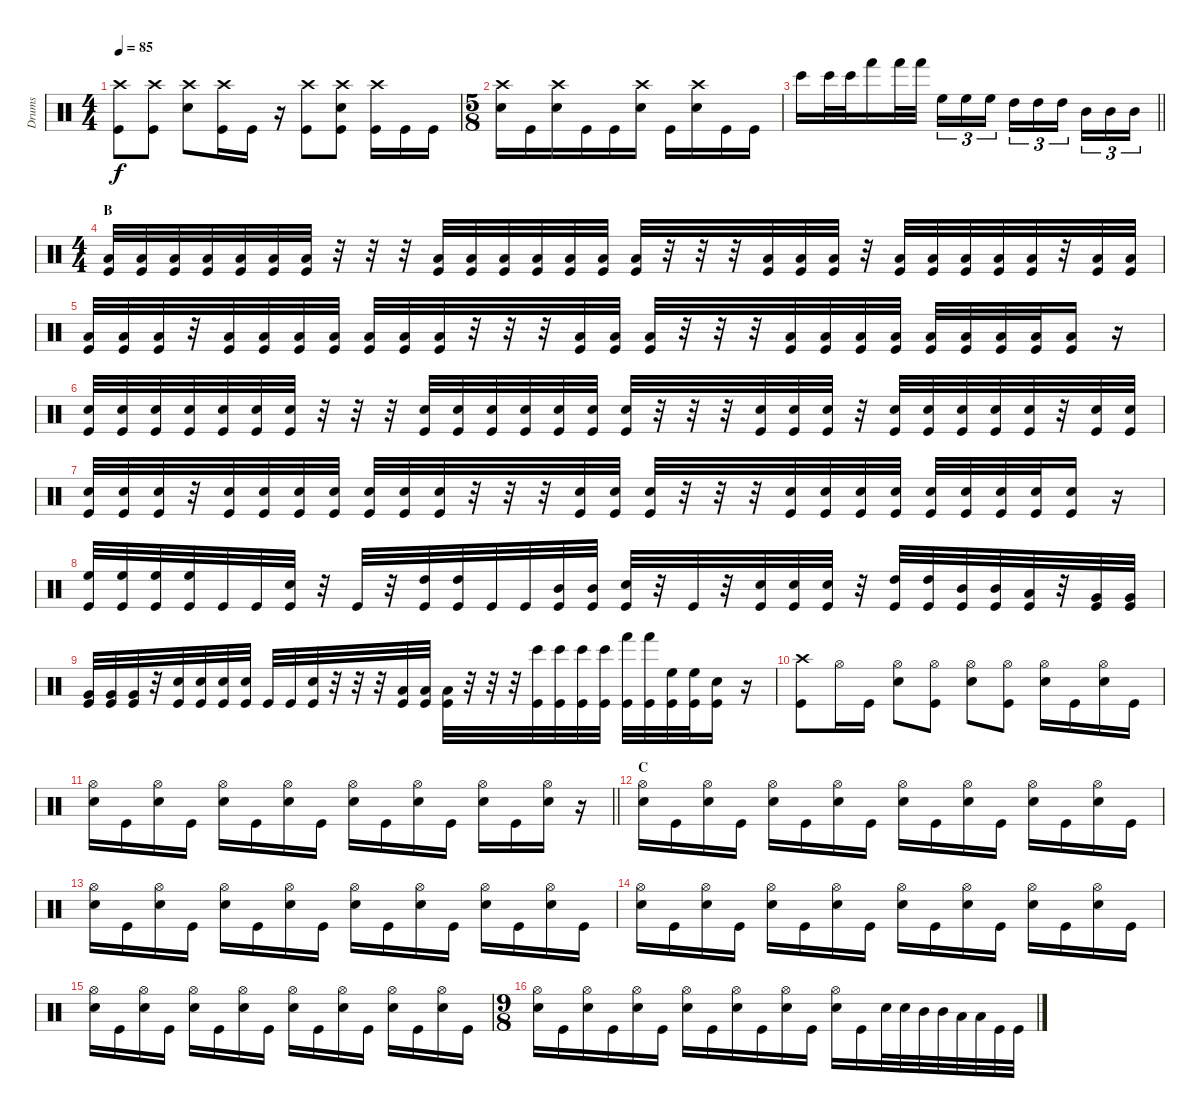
\track ("Drums" "Drums") {instrument percussion}
\staff {score}
\articulation defaults
\ts (4 4)
\tempo 85
\clef neutral
\ks c
("Crash high (hit)" "Kick (hit)").8{dy f} ("Crash high (hit)" "Kick (hit)").8 ("Crash high (hit)" "Snare (hit) 2").8 ("Crash high (hit)" "Kick (hit)").16 "Kick (hit)".16 r.16 ("Crash high (hit)" "Kick (hit)").8 ("Crash high (hit)" "Kick (hit)" "Snare (hit) 2").8 ("Crash high (hit)" "Kick (hit)").16 "Kick (hit)".16 "Kick (hit)".16 |
\ts (5 8)
("Crash high (hit)" "Snare (hit) 2").16 "Kick (hit)".16 ("Crash high (hit)" "Snare (hit) 2").16 "Kick (hit)".16 "Kick (hit)".16 ("Crash high (hit)" "Snare (hit) 2").16 "Kick (hit)".16 ("Crash high (hit)" "Snare (hit) 2").16 "Kick (hit)".16 "Kick (hit)".16 |
\barLineRight lightlight "Bongo High (hit)".16 "Bongo High (hit)".32 "Bongo High (hit)".32 "Hand (hit)".16 "Hand (hit)".32 "Hand (hit)".32 "High Floor Tom (hit)".16{tu (3 2)} "High Floor Tom (hit)".16{tu (3 2)} "High Floor Tom (hit)".16{tu (3 2)} "High Tom (hit)".16{tu (3 2)} "High Tom (hit)".16{tu (3 2)} "High Tom (hit)".16{tu (3 2)} "Mid Tom (hit)".16{tu (3 2)} "Mid Tom (hit)".16{tu (3 2)} "Mid Tom (hit)".16{tu (3 2)}
|
\ts (4 4)
\section ("" "B")
("Low Floor Tom (hit)" "Kick (hit)").32 ("Low Floor Tom (hit)" "Kick (hit)").32 ("Low Floor Tom (hit)" "Kick (hit)").32 ("Low Floor Tom (hit)" "Kick (hit)").32 ("Low Floor Tom (hit)" "Kick (hit)").32 ("Low Floor Tom (hit)" "Kick (hit)").32 ("Low Floor Tom (hit)" "Kick (hit)").32 r.32 r.32 r.32 ("Low Floor Tom (hit)" "Kick (hit)").32 ("Low Floor Tom (hit)" "Kick (hit)").32 ("Low Floor Tom (hit)" "Kick (hit)").32 ("Low Floor Tom (hit)" "Kick (hit)").32 ("Low Floor Tom (hit)" "Kick (hit)").32 ("Low Floor Tom (hit)" "Kick (hit)").32 ("Low Floor Tom (hit)" "Kick (hit)").32 r.32 r.32 r.32 ("Low Floor Tom (hit)" "Kick (hit)").32 ("Low Floor Tom (hit)" "Kick (hit)").32 ("Low Floor Tom (hit)" "Kick (hit)").32 r.32 ("Low Floor Tom (hit)" "Kick (hit)").32 ("Low Floor Tom (hit)" "Kick (hit)").32 ("Low Floor Tom (hit)" "Kick (hit)").32 ("Low Floor Tom (hit)" "Kick (hit)").32 ("Low Floor Tom (hit)" "Kick (hit)").32 r.32 ("Low Floor Tom (hit)" "Kick (hit)").32 ("Low Floor Tom (hit)" "Kick (hit)").32 |
("Low Floor Tom (hit)" "Kick (hit)").32 ("Low Floor Tom (hit)" "Kick (hit)").32 ("Low Floor Tom (hit)" "Kick (hit)").32 r.32 ("Low Floor Tom (hit)" "Kick (hit)").32 ("Low Floor Tom (hit)" "Kick (hit)").32 ("Low Floor Tom (hit)" "Kick (hit)").32 ("Low Floor Tom (hit)" "Kick (hit)").32 ("Low Floor Tom (hit)" "Kick (hit)").32 ("Low Floor Tom (hit)" "Kick (hit)").32 ("Low Floor Tom (hit)" "Kick (hit)").32 r.32 r.32 r.32 ("Low Floor Tom (hit)" "Kick (hit)").32 ("Low Floor Tom (hit)" "Kick (hit)").32 ("Low Floor Tom (hit)" "Kick (hit)").32 r.32 r.32 r.32 ("Low Floor Tom (hit)" "Kick (hit)").32 ("Low Floor Tom (hit)" "Kick (hit)").32 ("Low Floor Tom (hit)" "Kick (hit)").32 ("Low Floor Tom (hit)" "Kick (hit)").32 ("Low Floor Tom (hit)" "Kick (hit)").32 ("Low Floor Tom (hit)" "Kick (hit)").32 ("Low Floor Tom (hit)" "Kick (hit)").32 ("Low Floor Tom (hit)" "Kick (hit)").32 ("Low Floor Tom (hit)" "Kick (hit)").16 r.16 |
("Snare (hit) 2" "Kick (hit)").32 ("Snare (hit) 2" "Kick (hit)").32 ("Snare (hit) 2" "Kick (hit)").32 ("Snare (hit) 2" "Kick (hit)").32 ("Snare (hit) 2" "Kick (hit)").32 ("Snare (hit) 2" "Kick (hit)").32 ("Snare (hit) 2" "Kick (hit)").32 r.32 r.32 r.32 ("Snare (hit) 2" "Kick (hit)").32 ("Snare (hit) 2" "Kick (hit)").32 ("Snare (hit) 2" "Kick (hit)").32 ("Snare (hit) 2" "Kick (hit)").32 ("Snare (hit) 2" "Kick (hit)").32 ("Snare (hit) 2" "Kick (hit)").32 ("Snare (hit) 2" "Kick (hit)").32 r.32 r.32 r.32 ("Snare (hit) 2" "Kick (hit)").32 ("Snare (hit) 2" "Kick (hit)").32 ("Snare (hit) 2" "Kick (hit)").32 r.32 ("Snare (hit) 2" "Kick (hit)").32 ("Snare (hit) 2" "Kick (hit)").32 ("Snare (hit) 2" "Kick (hit)").32 ("Snare (hit) 2" "Kick (hit)").32 ("Snare (hit) 2" "Kick (hit)").32 r.32 ("Snare (hit) 2" "Kick (hit)").32 ("Snare (hit) 2" "Kick (hit)").32 |
("Snare (hit) 2" "Kick (hit)").32 ("Snare (hit) 2" "Kick (hit)").32 ("Snare (hit) 2" "Kick (hit)").32 r.32 ("Snare (hit) 2" "Kick (hit)").32 ("Snare (hit) 2" "Kick (hit)").32 ("Snare (hit) 2" "Kick (hit)").32 ("Snare (hit) 2" "Kick (hit)").32 ("Snare (hit) 2" "Kick (hit)").32 ("Snare (hit) 2" "Kick (hit)").32 ("Snare (hit) 2" "Kick (hit)").32 r.32 r.32 r.32 ("Snare (hit) 2" "Kick (hit)").32 ("Snare (hit) 2" "Kick (hit)").32 ("Snare (hit) 2" "Kick (hit)").32 r.32 r.32 r.32 ("Snare (hit) 2" "Kick (hit)").32 ("Snare (hit) 2" "Kick (hit)").32 ("Snare (hit) 2" "Kick (hit)").32 ("Snare (hit) 2" "Kick (hit)").32 ("Snare (hit) 2" "Kick (hit)").32 ("Snare (hit) 2" "Kick (hit)").32 ("Snare (hit) 2" "Kick (hit)").32 ("Snare (hit) 2" "Kick (hit)").32 ("Snare (hit) 2" "Kick (hit)").16 r.16 |
("High Floor Tom (hit)" "Kick (hit)").32 ("High Floor Tom (hit)" "Kick (hit)").32 ("High Floor Tom (hit)" "Kick (hit)").32 ("High Floor Tom (hit)" "Kick (hit)").32 "Kick (hit)".32 "Kick (hit)".32 ("Snare (hit) 2" "Kick (hit)").32 r.32 "Kick (hit)".32 r.32 ("High Tom (hit)" "Kick (hit)").32 ("High Tom (hit)" "Kick (hit)").32 "Kick (hit)".32 "Kick (hit)".32 ("Mid Tom (hit)" "Kick (hit)").32 ("Mid Tom (hit)" "Kick (hit)").32 ("Snare (hit) 2" "Kick (hit)").32 r.32 "Kick (hit)".32 r.32 ("Snare (hit) 2" "Kick (hit)").32 ("Snare (hit) 2" "Kick (hit)").32 ("Snare (hit) 2" "Kick (hit)").32 r.32 ("High Tom (hit)" "Kick (hit)").32 ("High Tom (hit)" "Kick (hit)").32 ("Mid Tom (hit)" "Kick (hit)").32 ("Mid Tom (hit)" "Kick (hit)").32 ("Low Tom (hit)" "Kick (hit)").32 r.32 ("Very Low Tom (hit)" "Kick (hit)").32 ("Very Low Tom (hit)" "Kick (hit)").32 |
("Very Low Tom (hit)" "Kick (hit)").32 ("Very Low Tom (hit)" "Kick (hit)").32 ("Very Low Tom (hit)" "Kick (hit)").32 r.32 ("Snare (hit) 2" "Kick (hit)").32 ("Snare (hit) 2" "Kick (hit)").32 ("Snare (hit) 2" "Kick (hit)").32 ("Snare (hit) 2" "Kick (hit)").32 "Kick (hit)".32 "Kick (hit)".32 ("Snare (hit) 2" "Kick (hit)").32 r.32 r.32 r.32 ("Low Floor Tom (hit)" "Kick (hit)").32 ("Low Floor Tom (hit)" "Kick (hit)").32 ("Low Floor Tom (hit)" "Kick (hit)").32 r.32 r.32 r.32 ("Bongo High (hit)" "Kick (hit)").32 ("Bongo High (hit)" "Kick (hit)").32 ("Bongo High (hit)" "Kick (hit)").32 ("Bongo High (hit)" "Kick (hit)").32 ("Hand (hit)" "Kick (hit)").32 ("Hand (hit)" "Kick (hit)").32 ("High Floor Tom (hit)" "Kick (hit)").32 ("High Floor Tom (hit)" "Kick (hit)").32 ("Snare (hit) 2" "Kick (hit)").16 r.16 |
("Crash high (hit)" "Kick (hit)").8 "Hi-Hat (open)".16 "Kick (hit)".16 ("Hi-Hat (open)" "Snare (hit) 2").8 ("Hi-Hat (open)" "Kick (hit)").8 ("Hi-Hat (open)" "Snare (hit) 2").8 ("Hi-Hat (open)" "Kick (hit)").8 ("Hi-Hat (open)" "Snare (hit) 2").16 "Kick (hit)".16 ("Hi-Hat (open)" "Snare (hit) 2").16 "Kick (hit)".16 |
\barLineRight lightlight
("Hi-Hat (open)" "Snare (hit) 2").16 "Kick (hit)".16 ("Hi-Hat (open)" "Snare (hit) 2").16 "Kick (hit)".16 ("Hi-Hat (open)" "Snare (hit) 2").16 "Kick (hit)".16 ("Hi-Hat (open)" "Snare (hit) 2").16 "Kick (hit)".16 ("Hi-Hat (open)" "Snare (hit) 2").16 "Kick (hit)".16 ("Hi-Hat (open)" "Snare (hit) 2").16 "Kick (hit)".16 ("Hi-Hat (open)" "Snare (hit) 2").16 "Kick (hit)".16 ("Hi-Hat (open)" "Snare (hit) 2").16 r.16 |
\section ("" "C")
("Hi-Hat (open)" "Snare (hit) 2").16 "Kick (hit)".16 ("Hi-Hat (open)" "Snare (hit) 2").16 "Kick (hit)".16 ("Hi-Hat (open)" "Snare (hit) 2").16 "Kick (hit)".16 ("Hi-Hat (open)" "Snare (hit) 2").16 "Kick (hit)".16 ("Hi-Hat (open)" "Snare (hit) 2").16 "Kick (hit)".16 ("Hi-Hat (open)" "Snare (hit) 2").16 "Kick (hit)".16 ("Hi-Hat (open)" "Snare (hit) 2").16 "Kick (hit)".16 ("Hi-Hat (open)" "Snare (hit) 2").16 "Kick (hit)".16 |
("Hi-Hat (open)" "Snare (hit) 2").16 "Kick (hit)".16 ("Hi-Hat (open)" "Snare (hit) 2").16 "Kick (hit)".16 ("Hi-Hat (open)" "Snare (hit) 2").16 "Kick (hit)".16 ("Hi-Hat (open)" "Snare (hit) 2").16 "Kick (hit)".16 ("Hi-Hat (open)" "Snare (hit) 2").16 "Kick (hit)".16 ("Hi-Hat (open)" "Snare (hit) 2").16 "Kick (hit)".16 ("Hi-Hat (open)" "Snare (hit) 2").16 "Kick (hit)".16 ("Hi-Hat (open)" "Snare (hit) 2").16 "Kick (hit)".16 |
("Hi-Hat (open)" "Snare (hit) 2").16 "Kick (hit)".16 ("Hi-Hat (open)" "Snare (hit) 2").16 "Kick (hit)".16 ("Hi-Hat (open)" "Snare (hit) 2").16 "Kick (hit)".16 ("Hi-Hat (open)" "Snare (hit) 2").16 "Kick (hit)".16 ("Hi-Hat (open)" "Snare (hit) 2").16 "Kick (hit)".16 ("Hi-Hat (open)" "Snare (hit) 2").16 "Kick (hit)".16 ("Hi-Hat (open)" "Snare (hit) 2").16 "Kick (hit)".16 ("Hi-Hat (open)" "Snare (hit) 2").16 "Kick (hit)".16 |
("Hi-Hat (open)" "Snare (hit) 2").16 "Kick (hit)".16 ("Hi-Hat (open)" "Snare (hit) 2").16 "Kick (hit)".16 ("Hi-Hat (open)" "Snare (hit) 2").16 "Kick (hit)".16 ("Hi-Hat (open)" "Snare (hit) 2").16 "Kick (hit)".16 ("Hi-Hat (open)" "Snare (hit) 2").16 "Kick (hit)".16 ("Hi-Hat (open)" "Snare (hit) 2").16 "Kick (hit)".16 ("Hi-Hat (open)" "Snare (hit) 2").16 "Kick (hit)".16 ("Hi-Hat (open)" "Snare (hit) 2").16 "Kick (hit)".16 |
\ts (9 8)
("Hi-Hat (open)" "Snare (hit) 2").16 "Kick (hit)".16 ("Hi-Hat (open)" "Snare (hit) 2").16 "Kick (hit)".16 ("Hi-Hat (open)" "Snare (hit) 2").16 "Kick (hit)".16 ("Hi-Hat (open)" "Snare (hit) 2").16 "Kick (hit)".16 ("Hi-Hat (open)" "Snare (hit) 2").16 "Kick (hit)".16 ("Hi-Hat (open)" "Snare (hit) 2").16 "Kick (hit)".16 ("Hi-Hat (open)" "Snare (hit) 2").16 "Kick (hit)".16 "Snare (hit) 2".32 "Snare (hit) 2".32 "Mid Tom (hit)".32 "Mid Tom (hit)".32 "Low Tom (hit)".32 "Low Tom (hit)".32 "Kick (hit)".32 "Kick (hit)".32
